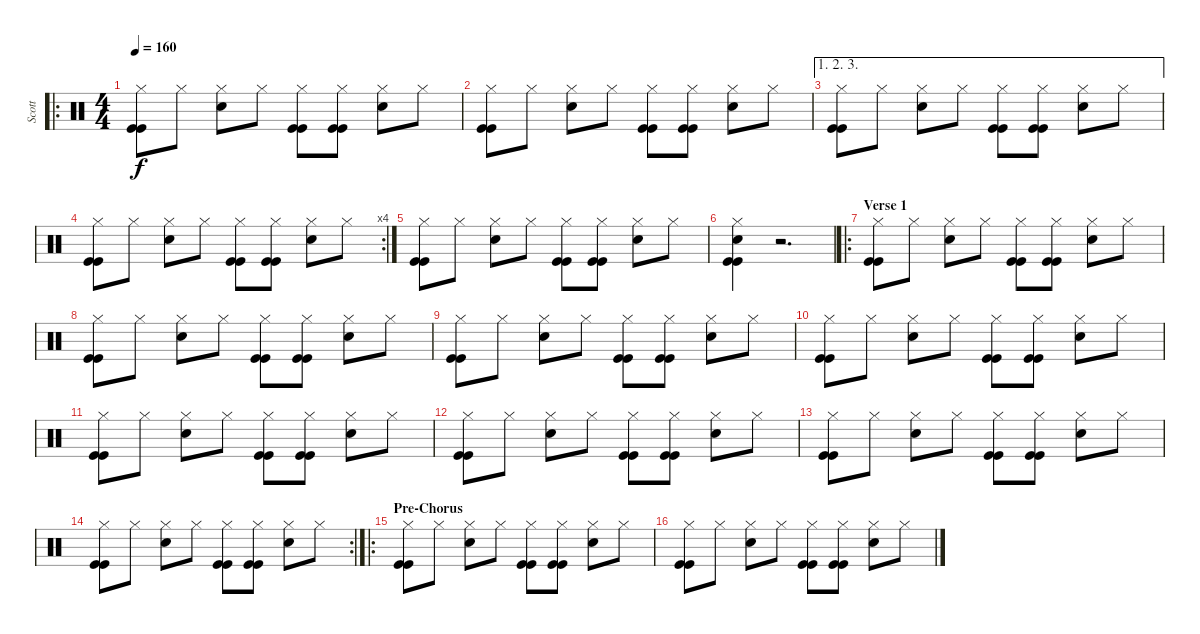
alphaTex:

\track ("Scott" "Scott") {instrument percussion}
\staff {score}
\articulation defaults
\ro
\ts (4 4)
\tempo 160
\clef neutral
\ks c
("Hi-Hat (closed)" "Kick (hit)" "Kick (hit)").8{dy f} "Hi-Hat (closed)".8 ("Hi-Hat (closed)" "Snare (hit) 2").8 "Hi-Hat (closed)".8 ("Hi-Hat (closed)" "Kick (hit)" "Kick (hit)").8 ("Hi-Hat (closed)" "Kick (hit)" "Kick (hit)").8 ("Hi-Hat (closed)" "Snare (hit) 2").8 "Hi-Hat (closed)".8 |
("Hi-Hat (closed)" "Kick (hit)" "Kick (hit)").8 "Hi-Hat (closed)".8 ("Hi-Hat (closed)" "Snare (hit) 2").8 "Hi-Hat (closed)".8 ("Hi-Hat (closed)" "Kick (hit)" "Kick (hit)").8 ("Hi-Hat (closed)" "Kick (hit)" "Kick (hit)").8 ("Hi-Hat (closed)" "Snare (hit) 2").8 "Hi-Hat (closed)".8 |
\ae (1 2 3)
("Hi-Hat (closed)" "Kick (hit)" "Kick (hit)").8 "Hi-Hat (closed)".8 ("Hi-Hat (closed)" "Snare (hit) 2").8 "Hi-Hat (closed)".8 ("Hi-Hat (closed)" "Kick (hit)" "Kick (hit)").8 ("Hi-Hat (closed)" "Kick (hit)" "Kick (hit)").8 ("Hi-Hat (closed)" "Snare (hit) 2").8 "Hi-Hat (closed)".8 |
\rc 4
("Hi-Hat (closed)" "Kick (hit)" "Kick (hit)").8 "Hi-Hat (closed)".8 ("Hi-Hat (closed)" "Snare (hit) 2").8 "Hi-Hat (closed)".8 ("Hi-Hat (closed)" "Kick (hit)" "Kick (hit)").8 ("Hi-Hat (closed)" "Kick (hit)" "Kick (hit)").8 ("Hi-Hat (closed)" "Snare (hit) 2").8 "Hi-Hat (closed)".8 |
("Hi-Hat (closed)" "Kick (hit)" "Kick (hit)").8 "Hi-Hat (closed)".8 ("Hi-Hat (closed)" "Snare (hit) 2").8 "Hi-Hat (closed)".8 ("Hi-Hat (closed)" "Kick (hit)" "Kick (hit)").8 ("Hi-Hat (closed)" "Kick (hit)" "Kick (hit)").8 ("Hi-Hat (closed)" "Snare (hit) 2").8 "Hi-Hat (closed)".8 |
("Hi-Hat (closed)" "Snare (hit) 2" "Kick (hit)" "Kick (hit)").4 r.2{d} |
\ro
\section ("" "Verse 1")
("Hi-Hat (closed)" "Kick (hit)" "Kick (hit)").8 "Hi-Hat (closed)".8 ("Hi-Hat (closed)" "Snare (hit) 2").8 "Hi-Hat (closed)".8 ("Hi-Hat (closed)" "Kick (hit)" "Kick (hit)").8 ("Hi-Hat (closed)" "Kick (hit)" "Kick (hit)").8 ("Hi-Hat (closed)" "Snare (hit) 2").8 "Hi-Hat (closed)".8 |
("Hi-Hat (closed)" "Kick (hit)" "Kick (hit)").8 "Hi-Hat (closed)".8 ("Hi-Hat (closed)" "Snare (hit) 2").8 "Hi-Hat (closed)".8 ("Hi-Hat (closed)" "Kick (hit)" "Kick (hit)").8 ("Hi-Hat (closed)" "Kick (hit)" "Kick (hit)").8 ("Hi-Hat (closed)" "Snare (hit) 2").8 "Hi-Hat (closed)".8 |
("Hi-Hat (closed)" "Kick (hit)" "Kick (hit)").8 "Hi-Hat (closed)".8 ("Hi-Hat (closed)" "Snare (hit) 2").8 "Hi-Hat (closed)".8 ("Hi-Hat (closed)" "Kick (hit)" "Kick (hit)").8 ("Hi-Hat (closed)" "Kick (hit)" "Kick (hit)").8 ("Hi-Hat (closed)" "Snare (hit) 2").8 "Hi-Hat (closed)".8 |
("Hi-Hat (closed)" "Kick (hit)" "Kick (hit)").8 "Hi-Hat (closed)".8 ("Hi-Hat (closed)" "Snare (hit) 2").8 "Hi-Hat (closed)".8 ("Hi-Hat (closed)" "Kick (hit)" "Kick (hit)").8 ("Hi-Hat (closed)" "Kick (hit)" "Kick (hit)").8 ("Hi-Hat (closed)" "Snare (hit) 2").8 "Hi-Hat (closed)".8 |
("Hi-Hat (closed)" "Kick (hit)" "Kick (hit)").8 "Hi-Hat (closed)".8 ("Hi-Hat (closed)" "Snare (hit) 2").8 "Hi-Hat (closed)".8 ("Hi-Hat (closed)" "Kick (hit)" "Kick (hit)").8 ("Hi-Hat (closed)" "Kick (hit)" "Kick (hit)").8 ("Hi-Hat (closed)" "Snare (hit) 2").8 "Hi-Hat (closed)".8 |
("Hi-Hat (closed)" "Kick (hit)" "Kick (hit)").8 "Hi-Hat (closed)".8 ("Hi-Hat (closed)" "Snare (hit) 2").8 "Hi-Hat (closed)".8 ("Hi-Hat (closed)" "Kick (hit)" "Kick (hit)").8 ("Hi-Hat (closed)" "Kick (hit)" "Kick (hit)").8 ("Hi-Hat (closed)" "Snare (hit) 2").8 "Hi-Hat (closed)".8 |
("Hi-Hat (closed)" "Kick (hit)" "Kick (hit)").8 "Hi-Hat (closed)".8 ("Hi-Hat (closed)" "Snare (hit) 2").8 "Hi-Hat (closed)".8 ("Hi-Hat (closed)" "Kick (hit)" "Kick (hit)").8 ("Hi-Hat (closed)" "Kick (hit)" "Kick (hit)").8 ("Hi-Hat (closed)" "Snare (hit) 2").8 "Hi-Hat (closed)".8 |
\rc 2
("Hi-Hat (closed)" "Kick (hit)" "Kick (hit)").8 "Hi-Hat (closed)".8 ("Hi-Hat (closed)" "Snare (hit) 2").8 "Hi-Hat (closed)".8 ("Hi-Hat (closed)" "Kick (hit)" "Kick (hit)").8 ("Hi-Hat (closed)" "Kick (hit)" "Kick (hit)").8 ("Hi-Hat (closed)" "Snare (hit) 2").8 "Hi-Hat (closed)".8 |
\ro
\section ("" "Pre-Chorus")
("Hi-Hat (closed)" "Kick (hit)" "Kick (hit)").8 "Hi-Hat (closed)".8 ("Hi-Hat (closed)" "Snare (hit) 2").8 "Hi-Hat (closed)".8 ("Hi-Hat (closed)" "Kick (hit)" "Kick (hit)").8 ("Hi-Hat (closed)" "Kick (hit)" "Kick (hit)").8 ("Hi-Hat (closed)" "Snare (hit) 2").8 "Hi-Hat (closed)".8 |
("Hi-Hat (closed)" "Kick (hit)" "Kick (hit)").8 "Hi-Hat (closed)".8 ("Hi-Hat (closed)" "Snare (hit) 2").8 "Hi-Hat (closed)".8 ("Hi-Hat (closed)" "Kick (hit)" "Kick (hit)").8 ("Hi-Hat (closed)" "Kick (hit)" "Kick (hit)").8 ("Hi-Hat (closed)" "Snare (hit) 2").8 "Hi-Hat (closed)".8
